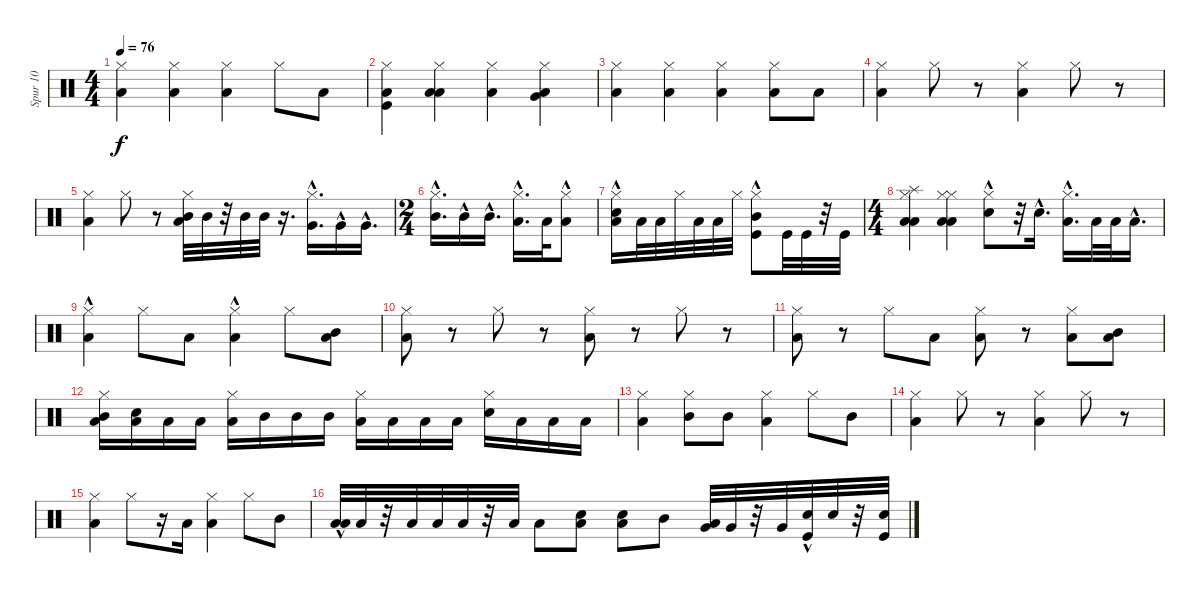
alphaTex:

\track ("Spur 10" "Spur 10") {instrument percussion}
\staff {score}
\articulation defaults
\ts (4 4)
\tempo 76
\clef neutral
\ks c
("Hi-Hat (closed)" "Low Floor Tom (hit)").4{dy f} ("Hi-Hat (closed)" "Low Floor Tom (hit)").4 ("Hi-Hat (closed)" "Low Floor Tom (hit)").4 "Hi-Hat (closed)".8 "Low Floor Tom (hit)".8 |
("Hi-Hat (closed)" "Low Floor Tom (hit)" "Kick (hit)").4 ("Hi-Hat (closed)" "Low Floor Tom (hit)" "Low Floor Tom (hit)").4 ("Hi-Hat (closed)" "Low Floor Tom (hit)").4 ("Low Floor Tom (hit)" "Hi-Hat (closed)" "Very Low Tom (hit)").4 |
("Hi-Hat (closed)" "Low Floor Tom (hit)").4 ("Hi-Hat (closed)" "Low Floor Tom (hit)").4 ("Hi-Hat (closed)" "Low Floor Tom (hit)").4 ("Hi-Hat (closed)" "Low Floor Tom (hit)").8 "Low Floor Tom (hit)".8 |
("Low Floor Tom (hit)" "Hi-Hat (closed)").4 "Hi-Hat (closed)".8 r.8 ("Low Floor Tom (hit)" "Hi-Hat (closed)").4 "Hi-Hat (closed)".8 r.8 |
("Low Floor Tom (hit)" "Hi-Hat (closed)").4 "Hi-Hat (closed)".8 r.8 ("Low Floor Tom (hit)" "Mid Tom (hit)" "Hi-Hat (closed)").32 "Mid Tom (hit)".32 r.32 "Mid Tom (hit)".32 "Mid Tom (hit)".32 r.16{d} ("Very Low Tom (hit)"{hac} "Hi-Hat (closed)").16{d} "Very Low Tom (hit)"{hac}.16 "Very Low Tom (hit)"{hac}.16{d} |
\ts (2 4)
("Hi-Hat (closed)" "Mid Tom (hit)"{hac}).16{d} "Mid Tom (hit)"{hac}.16 "Mid Tom (hit)"{hac}.16{d} ("Hi-Hat (closed)" "Low Floor Tom (hit)"{hac}).16{d} "Low Floor Tom (hit)".32 ("Hi-Hat (closed)" "Low Floor Tom (hit)"{hac}).8 |
("Hi-Hat (closed)"{hac} "Low Tom (hit)" "Snare (hit) 2").16 "Low Floor Tom (hit)".32 "Low Floor Tom (hit)".32 "Hi-Hat (closed)".32 "Low Floor Tom (hit)".32 "Low Floor Tom (hit)".32 "Hi-Hat (closed)".32 ("Hi-Hat (closed)"{hac} "Mid Tom (hit)" "Kick (hit)").8 "Kick (hit)".32 "Kick (hit)".32 r.32 "Kick (hit)".32 |
\ts (4 4)
("Low Tom (hit)" "Low Floor Tom (hit)" "Hi-Hat (closed)" "Splash (hit)").4 ("Low Tom (hit)" "Low Floor Tom (hit)" "Hi-Hat (closed)" "Hi-Hat (closed)").4 ("Snare (hit) 2"{hac} "Hi-Hat (closed)").8 r.32 "Snare (hit) 2"{hac}.16{d} ("Low Floor Tom (hit)"{hac} "Hi-Hat (closed)").16{d} "Low Floor Tom (hit)".32 "Low Floor Tom (hit)".32 "Low Floor Tom (hit)"{hac}.16{d} |
("Hi-Hat (closed)" "Low Floor Tom (hit)"{hac}).4 "Hi-Hat (closed)".8 "Low Floor Tom (hit)".8 ("Hi-Hat (closed)" "Low Floor Tom (hit)"{hac}).4 "Hi-Hat (closed)".8 ("Low Floor Tom (hit)" "Mid Tom (hit)").8 |
("Hi-Hat (closed)" "Low Floor Tom (hit)").8 r.8 "Hi-Hat (closed)".8 r.8 ("Hi-Hat (closed)" "Low Floor Tom (hit)").8 r.8 "Hi-Hat (closed)".8 r.8 |
("Hi-Hat (closed)" "Low Floor Tom (hit)").8 r.8 "Hi-Hat (closed)".8 "Low Floor Tom (hit)".8 ("Hi-Hat (closed)" "Low Floor Tom (hit)").8 r.8 ("Hi-Hat (closed)" "Low Floor Tom (hit)").8 ("Low Floor Tom (hit)" "Mid Tom (hit)").8 |
("Hi-Hat (closed)" "Mid Tom (hit)" "Low Floor Tom (hit)").16 ("Low Floor Tom (hit)" "Snare (hit) 2").16 "Low Floor Tom (hit)".16 "Low Floor Tom (hit)".16 ("Hi-Hat (closed)" "Low Floor Tom (hit)").16 "Mid Tom (hit)".16 "Mid Tom (hit)".16 "Mid Tom (hit)".16 ("Hi-Hat (closed)" "Low Floor Tom (hit)").16 "Low Floor Tom (hit)".16 "Low Floor Tom (hit)".16 "Low Tom (hit)".16 ("Hi-Hat (closed)" "Snare (hit) 2").16 "Low Floor Tom (hit)".16 "Low Floor Tom (hit)".16 "Low Floor Tom (hit)".16 |
("Hi-Hat (closed)" "Low Floor Tom (hit)").4 ("Hi-Hat (closed)" "Mid Tom (hit)").8 "Mid Tom (hit)".8 ("Hi-Hat (closed)" "Low Floor Tom (hit)").4 "Hi-Hat (closed)".8 "Mid Tom (hit)".8 |
("Hi-Hat (closed)" "Low Floor Tom (hit)").4 "Hi-Hat (closed)".8 r.8 ("Hi-Hat (closed)" "Low Floor Tom (hit)").4 "Hi-Hat (closed)".8 r.8 |
("Hi-Hat (closed)" "Low Floor Tom (hit)").4 "Hi-Hat (closed)".8 r.16 "Low Floor Tom (hit)".16 ("Hi-Hat (closed)" "Low Floor Tom (hit)").4 "Hi-Hat (closed)".8 "Mid Tom (hit)".8 |
("Low Floor Tom (hit)"{hac} "Low Tom (hit)").32 "Low Tom (hit)".32 r.32 "Low Tom (hit)".32 "Low Tom (hit)".32 "Low Tom (hit)".32 r.32 "Low Tom (hit)".32 "Low Floor Tom (hit)".8 ("Low Floor Tom (hit)" "Snare (hit) 2").8 ("Low Floor Tom (hit)" "Snare (hit) 2").8 "Mid Tom (hit)".8 ("Very Low Tom (hit)" "Low Floor Tom (hit)").32 "Very Low Tom (hit)".32 r.32 "Very Low Tom (hit)".32 ("Snare (hit) 2" "Kick (hit)"{hac}).32 "Snare (hit) 2".32 r.32 ("Snare (hit) 2" "Kick (hit)").32
